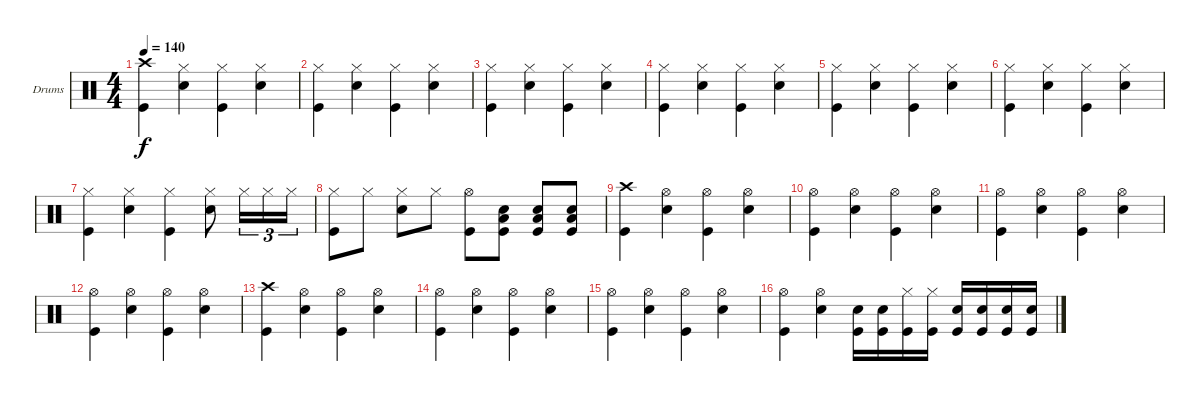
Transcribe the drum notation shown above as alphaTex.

\bracketExtendMode groupsimilarinstruments
\firstSystemTrackNameOrientation horizontal
\otherSystemsTrackNameOrientation horizontal
\track ("Drumkit" "Drums") {instrument percussion}
\staff {score}
\articulation defaults
\ts (4 4)
\beaming (8 2 2 2 2)
\tempo 140
\clef neutral
\ks c
("Crash high (hit)" "Kick (hit)").4{dy f} ("Hi-Hat (closed)" "Snare (hit) 2").4 ("Hi-Hat (closed)" "Kick (hit)").4 ("Hi-Hat (closed)" "Snare (hit) 2").4 |
("Hi-Hat (closed)" "Kick (hit)").4 ("Hi-Hat (closed)" "Snare (hit) 2").4 ("Hi-Hat (closed)" "Kick (hit)").4 ("Hi-Hat (closed)" "Snare (hit) 2").4 |
("Hi-Hat (closed)" "Kick (hit)").4 ("Hi-Hat (closed)" "Snare (hit) 2").4 ("Hi-Hat (closed)" "Kick (hit)").4 ("Hi-Hat (closed)" "Snare (hit) 2").4 |
("Hi-Hat (closed)" "Kick (hit)").4 ("Hi-Hat (closed)" "Snare (hit) 2").4 ("Hi-Hat (closed)" "Kick (hit)").4 ("Hi-Hat (closed)" "Snare (hit) 2").4 |
("Hi-Hat (closed)" "Kick (hit)").4 ("Hi-Hat (closed)" "Snare (hit) 2").4 ("Hi-Hat (closed)" "Kick (hit)").4 ("Hi-Hat (closed)" "Snare (hit) 2").4 |
("Hi-Hat (closed)" "Kick (hit)").4 ("Hi-Hat (closed)" "Snare (hit) 2").4 ("Hi-Hat (closed)" "Kick (hit)").4 ("Hi-Hat (closed)" "Snare (hit) 2").4 |
("Hi-Hat (closed)" "Kick (hit)").4 ("Hi-Hat (closed)" "Snare (hit) 2").4 ("Hi-Hat (closed)" "Kick (hit)").4 ("Hi-Hat (closed)" "Snare (hit) 2").8 "Hi-Hat (closed)".16{tu (3 2)} "Hi-Hat (closed)".16{tu (3 2)} "Hi-Hat (closed)".16{tu (3 2)} |
("Hi-Hat (closed)" "Kick (hit)").8 "Hi-Hat (closed)".8 ("Hi-Hat (closed)" "Snare (hit) 2").8 "Hi-Hat (closed)".8 ("Hi-Hat (open)" "Kick (hit)").8 ("Low Tom (hit)" "Snare (hit) 2" "Kick (hit)").8 ("Low Tom (hit)" "Snare (hit) 2" "Kick (hit)").8 ("Low Tom (hit)" "Snare (hit) 2" "Kick (hit)").8 |
("Crash high (hit)" "Kick (hit)").4 ("Hi-Hat (open)" "Snare (hit) 2").4 ("Hi-Hat (open)" "Kick (hit)").4 ("Hi-Hat (open)" "Snare (hit) 2").4 |
("Hi-Hat (open)" "Kick (hit)").4 ("Hi-Hat (open)" "Snare (hit) 2").4 ("Hi-Hat (open)" "Kick (hit)").4 ("Hi-Hat (open)" "Snare (hit) 2").4 |
("Hi-Hat (open)" "Kick (hit)").4 ("Hi-Hat (open)" "Snare (hit) 2").4 ("Hi-Hat (open)" "Kick (hit)").4 ("Hi-Hat (open)" "Snare (hit) 2").4 |
("Hi-Hat (open)" "Kick (hit)").4 ("Hi-Hat (open)" "Snare (hit) 2").4 ("Hi-Hat (open)" "Kick (hit)").4 ("Hi-Hat (open)" "Snare (hit) 2").4 |
("Crash high (hit)" "Kick (hit)").4 ("Hi-Hat (open)" "Snare (hit) 2").4 ("Hi-Hat (open)" "Kick (hit)").4 ("Hi-Hat (open)" "Snare (hit) 2").4 |
("Hi-Hat (open)" "Kick (hit)").4 ("Hi-Hat (open)" "Snare (hit) 2").4 ("Hi-Hat (open)" "Kick (hit)").4 ("Hi-Hat (open)" "Snare (hit) 2").4 |
("Hi-Hat (open)" "Kick (hit)").4 ("Hi-Hat (open)" "Snare (hit) 2").4 ("Hi-Hat (open)" "Kick (hit)").4 ("Hi-Hat (open)" "Snare (hit) 2").4 |
("Hi-Hat (open)" "Kick (hit)").4 ("Hi-Hat (open)" "Snare (hit) 2").4 ("Snare (hit) 2" "Kick (hit)").16 ("Snare (hit) 2" "Kick (hit)").16 ("Hi-Hat (closed)" "Kick (hit)").16 ("Hi-Hat (closed)" "Kick (hit)").16 ("Snare (hit) 2" "Kick (hit)").16 ("Snare (hit) 2" "Kick (hit)").16 ("Snare (hit) 2" "Kick (hit)").16 ("Snare (hit) 2" "Kick (hit)").16
